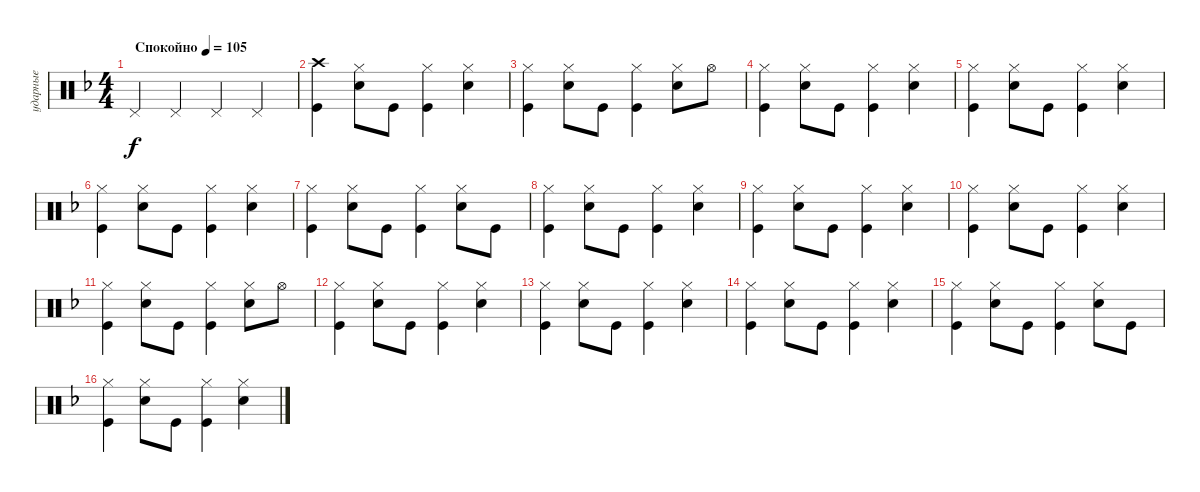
\track ("ударные" "ударные") {instrument percussion}
\staff {score}
\articulation defaults
\ts (4 4)
\tempo (105 "Спокойно")
\clef neutral
\ks f "Pedal Hi-Hat (hit)".4{dy f} "Pedal Hi-Hat (hit)".4 "Pedal Hi-Hat (hit)".4 "Pedal Hi-Hat (hit)".4
|
("Kick (hit)" "Crash high (hit)").4 ("Snare (hit) 2" "Hi-Hat (closed)").8 "Kick (hit)".8 ("Kick (hit)" "Hi-Hat (closed)").4 ("Snare (hit) 2" "Hi-Hat (closed)").4 |
("Kick (hit)" "Hi-Hat (closed)").4 ("Snare (hit) 2" "Hi-Hat (closed)").8 "Kick (hit)".8 ("Kick (hit)" "Hi-Hat (closed)").4 ("Snare (hit) 2" "Hi-Hat (closed)").8 "Hi-Hat (open)".8 |
("Kick (hit)" "Hi-Hat (closed)").4 ("Snare (hit) 2" "Hi-Hat (closed)").8 "Kick (hit)".8 ("Kick (hit)" "Hi-Hat (closed)").4 ("Snare (hit) 2" "Hi-Hat (closed)").4 |
("Kick (hit)" "Hi-Hat (closed)").4 ("Snare (hit) 2" "Hi-Hat (closed)").8 "Kick (hit)".8 ("Kick (hit)" "Hi-Hat (closed)").4 ("Snare (hit) 2" "Hi-Hat (closed)").4 |
("Kick (hit)" "Hi-Hat (closed)").4 ("Snare (hit) 2" "Hi-Hat (closed)").8 "Kick (hit)".8 ("Kick (hit)" "Hi-Hat (closed)").4 ("Snare (hit) 2" "Hi-Hat (closed)").4 |
("Kick (hit)" "Hi-Hat (closed)").4 ("Snare (hit) 2" "Hi-Hat (closed)").8 "Kick (hit)".8 ("Kick (hit)" "Hi-Hat (closed)").4 ("Snare (hit) 2" "Hi-Hat (closed)").8 "Kick (hit)".8 |
("Kick (hit)" "Hi-Hat (closed)").4 ("Snare (hit) 2" "Hi-Hat (closed)").8 "Kick (hit)".8 ("Kick (hit)" "Hi-Hat (closed)").4 ("Snare (hit) 2" "Hi-Hat (closed)").4 |
("Kick (hit)" "Hi-Hat (closed)").4 ("Snare (hit) 2" "Hi-Hat (closed)").8 "Kick (hit)".8 ("Kick (hit)" "Hi-Hat (closed)").4 ("Snare (hit) 2" "Hi-Hat (closed)").4 |
("Kick (hit)" "Hi-Hat (closed)").4 ("Snare (hit) 2" "Hi-Hat (closed)").8 "Kick (hit)".8 ("Kick (hit)" "Hi-Hat (closed)").4 ("Snare (hit) 2" "Hi-Hat (closed)").4 |
("Kick (hit)" "Hi-Hat (closed)").4 ("Snare (hit) 2" "Hi-Hat (closed)").8 "Kick (hit)".8 ("Kick (hit)" "Hi-Hat (closed)").4 ("Snare (hit) 2" "Hi-Hat (closed)").8 "Hi-Hat (open)".8 |
("Kick (hit)" "Hi-Hat (closed)").4 ("Snare (hit) 2" "Hi-Hat (closed)").8 "Kick (hit)".8 ("Kick (hit)" "Hi-Hat (closed)").4 ("Snare (hit) 2" "Hi-Hat (closed)").4 |
("Kick (hit)" "Hi-Hat (closed)").4 ("Snare (hit) 2" "Hi-Hat (closed)").8 "Kick (hit)".8 ("Kick (hit)" "Hi-Hat (closed)").4 ("Snare (hit) 2" "Hi-Hat (closed)").4 |
("Kick (hit)" "Hi-Hat (closed)").4 ("Snare (hit) 2" "Hi-Hat (closed)").8 "Kick (hit)".8 ("Kick (hit)" "Hi-Hat (closed)").4 ("Snare (hit) 2" "Hi-Hat (closed)").4 |
("Kick (hit)" "Hi-Hat (closed)").4 ("Snare (hit) 2" "Hi-Hat (closed)").8 "Kick (hit)".8 ("Kick (hit)" "Hi-Hat (closed)").4 ("Snare (hit) 2" "Hi-Hat (closed)").8 "Kick (hit)".8 |
("Kick (hit)" "Hi-Hat (closed)").4 ("Snare (hit) 2" "Hi-Hat (closed)").8 "Kick (hit)".8 ("Kick (hit)" "Hi-Hat (closed)").4 ("Snare (hit) 2" "Hi-Hat (closed)").4
